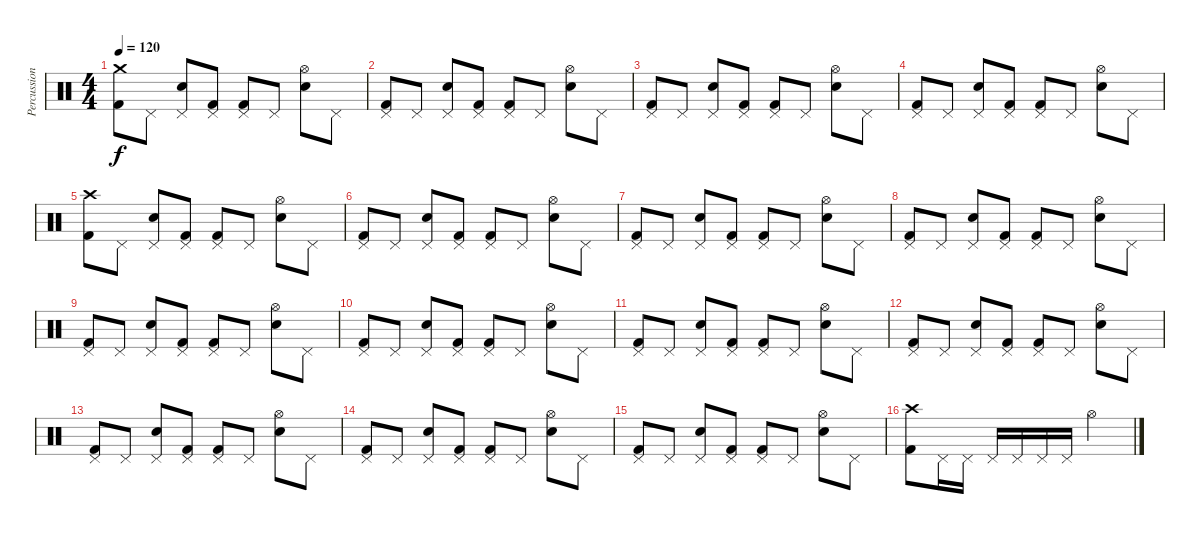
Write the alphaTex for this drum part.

\track ("Percussions" "Percussion") {instrument percussion}
\staff {score}
\articulation defaults
\ts (4 4)
\tempo 120
\clef neutral
\ks c
("Crash medium (hit)" "Kick (hit) 2").8{dy f} "Pedal Hi-Hat (hit)".8 ("Pedal Hi-Hat (hit)" "Snare (hit) 2").8 ("Pedal Hi-Hat (hit)" "Kick (hit) 2").8 ("Pedal Hi-Hat (hit)" "Kick (hit) 2").8 "Pedal Hi-Hat (hit)".8 ("Hi-Hat (open)" "Snare (hit) 2").8 "Pedal Hi-Hat (hit)".8 |
("Pedal Hi-Hat (hit)" "Kick (hit) 2").8 "Pedal Hi-Hat (hit)".8 ("Pedal Hi-Hat (hit)" "Snare (hit) 2").8 ("Pedal Hi-Hat (hit)" "Kick (hit) 2").8 ("Pedal Hi-Hat (hit)" "Kick (hit) 2").8 "Pedal Hi-Hat (hit)".8 ("Hi-Hat (open)" "Snare (hit) 2").8 "Pedal Hi-Hat (hit)".8 |
("Pedal Hi-Hat (hit)" "Kick (hit) 2").8 "Pedal Hi-Hat (hit)".8 ("Pedal Hi-Hat (hit)" "Snare (hit) 2").8 ("Pedal Hi-Hat (hit)" "Kick (hit) 2").8 ("Pedal Hi-Hat (hit)" "Kick (hit) 2").8 "Pedal Hi-Hat (hit)".8 ("Hi-Hat (open)" "Snare (hit) 2").8 "Pedal Hi-Hat (hit)".8 |
("Pedal Hi-Hat (hit)" "Kick (hit) 2").8 "Pedal Hi-Hat (hit)".8 ("Pedal Hi-Hat (hit)" "Snare (hit) 2").8 ("Pedal Hi-Hat (hit)" "Kick (hit) 2").8 ("Pedal Hi-Hat (hit)" "Kick (hit) 2").8 "Pedal Hi-Hat (hit)".8 ("Hi-Hat (open)" "Snare (hit) 2").8 "Pedal Hi-Hat (hit)".8 |
("Crash high (hit)" "Kick (hit) 2").8 "Pedal Hi-Hat (hit)".8 ("Pedal Hi-Hat (hit)" "Snare (hit) 2").8 ("Pedal Hi-Hat (hit)" "Kick (hit) 2").8 ("Pedal Hi-Hat (hit)" "Kick (hit) 2").8 "Pedal Hi-Hat (hit)".8 ("Hi-Hat (open)" "Snare (hit) 2").8 "Pedal Hi-Hat (hit)".8 |
("Pedal Hi-Hat (hit)" "Kick (hit) 2").8 "Pedal Hi-Hat (hit)".8 ("Pedal Hi-Hat (hit)" "Snare (hit) 2").8 ("Pedal Hi-Hat (hit)" "Kick (hit) 2").8 ("Pedal Hi-Hat (hit)" "Kick (hit) 2").8 "Pedal Hi-Hat (hit)".8 ("Hi-Hat (open)" "Snare (hit) 2").8 "Pedal Hi-Hat (hit)".8 |
("Pedal Hi-Hat (hit)" "Kick (hit) 2").8 "Pedal Hi-Hat (hit)".8 ("Pedal Hi-Hat (hit)" "Snare (hit) 2").8 ("Pedal Hi-Hat (hit)" "Kick (hit) 2").8 ("Pedal Hi-Hat (hit)" "Kick (hit) 2").8 "Pedal Hi-Hat (hit)".8 ("Hi-Hat (open)" "Snare (hit) 2").8 "Pedal Hi-Hat (hit)".8 |
("Pedal Hi-Hat (hit)" "Kick (hit) 2").8 "Pedal Hi-Hat (hit)".8 ("Pedal Hi-Hat (hit)" "Snare (hit) 2").8 ("Pedal Hi-Hat (hit)" "Kick (hit) 2").8 ("Pedal Hi-Hat (hit)" "Kick (hit) 2").8 "Pedal Hi-Hat (hit)".8 ("Hi-Hat (open)" "Snare (hit) 2").8 "Pedal Hi-Hat (hit)".8 |
("Pedal Hi-Hat (hit)" "Kick (hit) 2").8 "Pedal Hi-Hat (hit)".8 ("Pedal Hi-Hat (hit)" "Snare (hit) 2").8 ("Pedal Hi-Hat (hit)" "Kick (hit) 2").8 ("Pedal Hi-Hat (hit)" "Kick (hit) 2").8 "Pedal Hi-Hat (hit)".8 ("Hi-Hat (open)" "Snare (hit) 2").8 "Pedal Hi-Hat (hit)".8 |
("Pedal Hi-Hat (hit)" "Kick (hit) 2").8 "Pedal Hi-Hat (hit)".8 ("Pedal Hi-Hat (hit)" "Snare (hit) 2").8 ("Pedal Hi-Hat (hit)" "Kick (hit) 2").8 ("Pedal Hi-Hat (hit)" "Kick (hit) 2").8 "Pedal Hi-Hat (hit)".8 ("Hi-Hat (open)" "Snare (hit) 2").8 "Pedal Hi-Hat (hit)".8 |
("Pedal Hi-Hat (hit)" "Kick (hit) 2").8 "Pedal Hi-Hat (hit)".8 ("Pedal Hi-Hat (hit)" "Snare (hit) 2").8 ("Pedal Hi-Hat (hit)" "Kick (hit) 2").8 ("Pedal Hi-Hat (hit)" "Kick (hit) 2").8 "Pedal Hi-Hat (hit)".8 ("Hi-Hat (open)" "Snare (hit) 2").8 "Pedal Hi-Hat (hit)".8 |
("Pedal Hi-Hat (hit)" "Kick (hit) 2").8 "Pedal Hi-Hat (hit)".8 ("Pedal Hi-Hat (hit)" "Snare (hit) 2").8 ("Pedal Hi-Hat (hit)" "Kick (hit) 2").8 ("Pedal Hi-Hat (hit)" "Kick (hit) 2").8 "Pedal Hi-Hat (hit)".8 ("Hi-Hat (open)" "Snare (hit) 2").8 "Pedal Hi-Hat (hit)".8 |
("Pedal Hi-Hat (hit)" "Kick (hit) 2").8 "Pedal Hi-Hat (hit)".8 ("Pedal Hi-Hat (hit)" "Snare (hit) 2").8 ("Pedal Hi-Hat (hit)" "Kick (hit) 2").8 ("Pedal Hi-Hat (hit)" "Kick (hit) 2").8 "Pedal Hi-Hat (hit)".8 ("Hi-Hat (open)" "Snare (hit) 2").8 "Pedal Hi-Hat (hit)".8 |
("Pedal Hi-Hat (hit)" "Kick (hit) 2").8 "Pedal Hi-Hat (hit)".8 ("Pedal Hi-Hat (hit)" "Snare (hit) 2").8 ("Pedal Hi-Hat (hit)" "Kick (hit) 2").8 ("Pedal Hi-Hat (hit)" "Kick (hit) 2").8 "Pedal Hi-Hat (hit)".8 ("Hi-Hat (open)" "Snare (hit) 2").8 "Pedal Hi-Hat (hit)".8 |
("Pedal Hi-Hat (hit)" "Kick (hit) 2").8 "Pedal Hi-Hat (hit)".8 ("Pedal Hi-Hat (hit)" "Snare (hit) 2").8 ("Pedal Hi-Hat (hit)" "Kick (hit) 2").8 ("Pedal Hi-Hat (hit)" "Kick (hit) 2").8 "Pedal Hi-Hat (hit)".8 ("Hi-Hat (open)" "Snare (hit) 2").8 "Pedal Hi-Hat (hit)".8 |
("Crash high (hit)" "Kick (hit) 2").8 "Pedal Hi-Hat (hit)".16 "Pedal Hi-Hat (hit)".16 "Pedal Hi-Hat (hit)".16 "Pedal Hi-Hat (hit)".16 "Pedal Hi-Hat (hit)".16 "Pedal Hi-Hat (hit)".16 "Hi-Hat (open)".2
